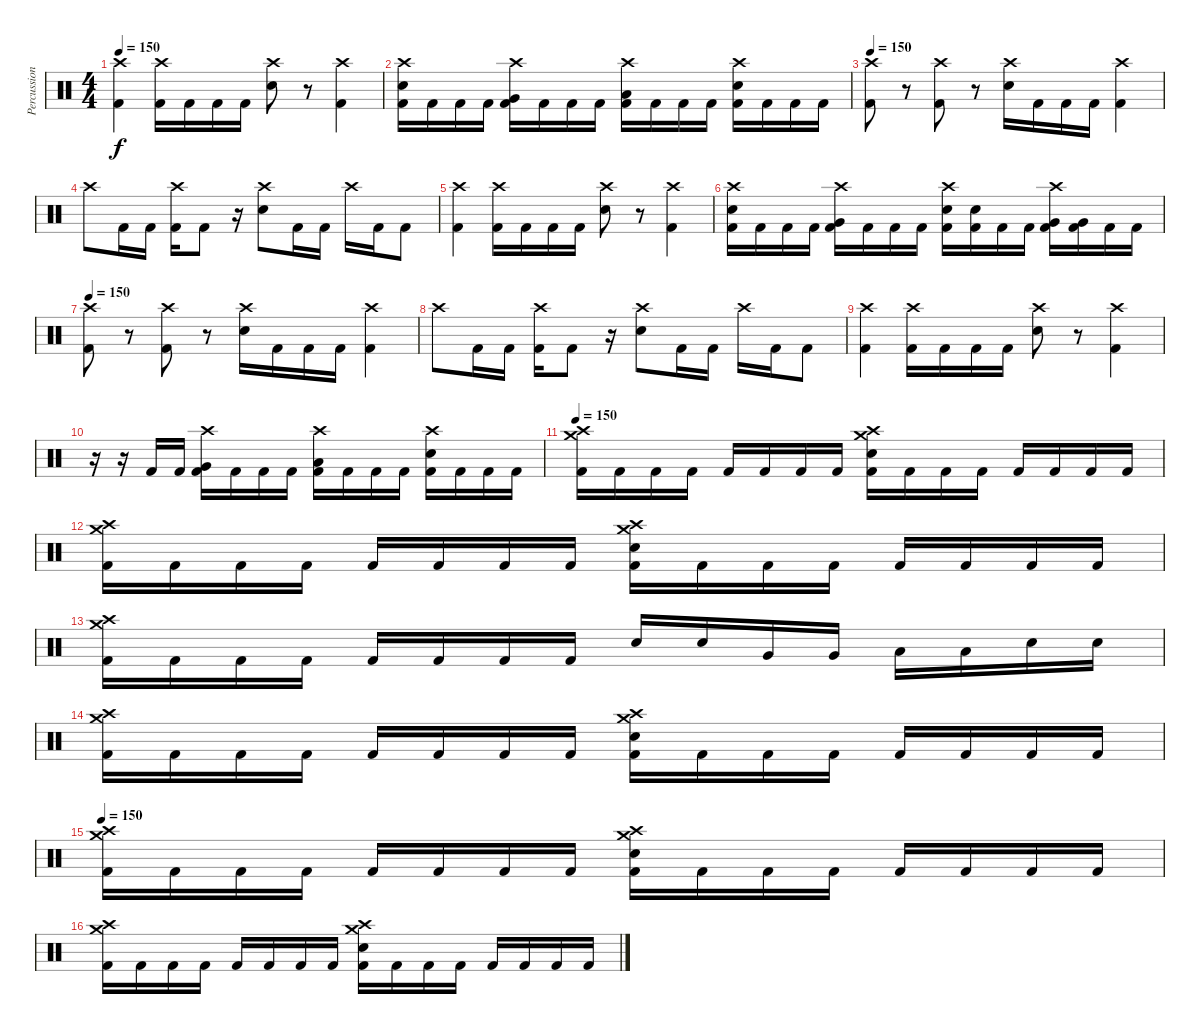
\track ("Percussions" "Percussion") {instrument percussion}
\staff {score}
\articulation defaults
\ts (4 4)
\tempo 150
\clef neutral
\ks c
("Crash high (hit)" "Kick (hit) 2").4{dy f} ("Crash high (hit)" "Kick (hit) 2").16 "Kick (hit) 2".16 "Kick (hit) 2".16 "Kick (hit) 2".16 ("Crash high (hit)" "Electric Snare (hit)").8 r.8 ("Crash high (hit)" "Kick (hit) 2").4 |
("Crash high (hit)" "Electric Snare (hit)" "Kick (hit) 2").16 "Kick (hit) 2".16 "Kick (hit) 2".16 "Kick (hit) 2".16 ("Crash high (hit)" "Very Low Tom (hit)" "Kick (hit) 2").16 "Kick (hit) 2".16 "Kick (hit) 2".16 "Kick (hit) 2".16 ("Crash high (hit)" "Low Floor Tom (hit)" "Kick (hit) 2").16 "Kick (hit) 2".16 "Kick (hit) 2".16 "Kick (hit) 2".16 ("Crash high (hit)" "Electric Snare (hit)" "Kick (hit) 2").16 "Kick (hit) 2".16 "Kick (hit) 2".16 "Kick (hit) 2".16 |
\tempo 150
("Crash high (hit)" "Kick (hit) 2").8 r.8 ("Crash high (hit)" "Kick (hit) 2").8 r.8 ("Crash high (hit)" "Electric Snare (hit)").16 "Kick (hit) 2".16 "Kick (hit) 2".16 "Kick (hit) 2".16 ("Crash high (hit)" "Kick (hit) 2").4 |
"Crash high (hit)".8 "Kick (hit) 2".16 "Kick (hit) 2".16 ("Crash high (hit)" "Kick (hit) 2").16 "Kick (hit) 2".8 r.16 ("Crash high (hit)" "Electric Snare (hit)").8 "Kick (hit) 2".16 "Kick (hit) 2".16 "Crash high (hit)".16 "Kick (hit) 2".16 "Kick (hit) 2".8 |
("Crash high (hit)" "Kick (hit) 2").4 ("Crash high (hit)" "Kick (hit) 2").16 "Kick (hit) 2".16 "Kick (hit) 2".16 "Kick (hit) 2".16 ("Crash high (hit)" "Electric Snare (hit)").8 r.8 ("Crash high (hit)" "Kick (hit) 2").4 |
("Crash high (hit)" "Electric Snare (hit)" "Kick (hit) 2").16 "Kick (hit) 2".16 "Kick (hit) 2".16 "Kick (hit) 2".16 ("Crash high (hit)" "Very Low Tom (hit)" "Kick (hit) 2").16 "Kick (hit) 2".16 "Kick (hit) 2".16 "Kick (hit) 2".16 ("Crash high (hit)" "Electric Snare (hit)" "Kick (hit) 2").16 ("Electric Snare (hit)" "Kick (hit) 2").16 "Kick (hit) 2".16 "Kick (hit) 2".16 ("Crash high (hit)" "Very Low Tom (hit)" "Kick (hit) 2").16 ("Very Low Tom (hit)" "Kick (hit) 2").16 "Kick (hit) 2".16 "Kick (hit) 2".16 |
\tempo 150
("Crash high (hit)" "Kick (hit) 2").8 r.8 ("Crash high (hit)" "Kick (hit) 2").8 r.8 ("Crash high (hit)" "Electric Snare (hit)").16 "Kick (hit) 2".16 "Kick (hit) 2".16 "Kick (hit) 2".16 ("Crash high (hit)" "Kick (hit) 2").4 |
"Crash high (hit)".8 "Kick (hit) 2".16 "Kick (hit) 2".16 ("Crash high (hit)" "Kick (hit) 2").16 "Kick (hit) 2".8 r.16 ("Crash high (hit)" "Electric Snare (hit)").8 "Kick (hit) 2".16 "Kick (hit) 2".16 "Crash high (hit)".16 "Kick (hit) 2".16 "Kick (hit) 2".8 |
("Crash high (hit)" "Kick (hit) 2").4 ("Crash high (hit)" "Kick (hit) 2").16 "Kick (hit) 2".16 "Kick (hit) 2".16 "Kick (hit) 2".16 ("Crash high (hit)" "Electric Snare (hit)").8 r.8 ("Crash high (hit)" "Kick (hit) 2").4 |
r.16 r.16 "Kick (hit) 2".16 "Kick (hit) 2".16 ("Crash high (hit)" "Very Low Tom (hit)" "Kick (hit) 2").16 "Kick (hit) 2".16 "Kick (hit) 2".16 "Kick (hit) 2".16 ("Crash high (hit)" "Low Floor Tom (hit)" "Kick (hit) 2").16 "Kick (hit) 2".16 "Kick (hit) 2".16 "Kick (hit) 2".16 ("Crash high (hit)" "Electric Snare (hit)" "Kick (hit) 2").16 "Kick (hit) 2".16 "Kick (hit) 2".16 "Kick (hit) 2".16 |
\tempo 150
("Crash high (hit)" "Crash medium (hit)" "Kick (hit) 2").16 "Kick (hit) 2".16 "Kick (hit) 2".16 "Kick (hit) 2".16 "Kick (hit) 2".16 "Kick (hit) 2".16 "Kick (hit) 2".16 "Kick (hit) 2".16 ("Crash high (hit)" "Crash medium (hit)" "Electric Snare (hit)" "Kick (hit) 2").16 "Kick (hit) 2".16 "Kick (hit) 2".16 "Kick (hit) 2".16 "Kick (hit) 2".16 "Kick (hit) 2".16 "Kick (hit) 2".16 "Kick (hit) 2".16 |
("Crash high (hit)" "Crash medium (hit)" "Kick (hit) 2").16 "Kick (hit) 2".16 "Kick (hit) 2".16 "Kick (hit) 2".16 "Kick (hit) 2".16 "Kick (hit) 2".16 "Kick (hit) 2".16 "Kick (hit) 2".16 ("Crash high (hit)" "Crash medium (hit)" "Electric Snare (hit)" "Kick (hit) 2").16 "Kick (hit) 2".16 "Kick (hit) 2".16 "Kick (hit) 2".16 "Kick (hit) 2".16 "Kick (hit) 2".16 "Kick (hit) 2".16 "Kick (hit) 2".16 |
("Crash high (hit)" "Crash medium (hit)" "Kick (hit) 2").16 "Kick (hit) 2".16 "Kick (hit) 2".16 "Kick (hit) 2".16 "Kick (hit) 2".16 "Kick (hit) 2".16 "Kick (hit) 2".16 "Kick (hit) 2".16 "Electric Snare (hit)".16 "Electric Snare (hit)".16 "Very Low Tom (hit)".16 "Very Low Tom (hit)".16 "Low Floor Tom (hit)".16 "Low Floor Tom (hit)".16 "Electric Snare (hit)".16 "Electric Snare (hit)".16 |
("Crash high (hit)" "Crash medium (hit)" "Kick (hit) 2").16 "Kick (hit) 2".16 "Kick (hit) 2".16 "Kick (hit) 2".16 "Kick (hit) 2".16 "Kick (hit) 2".16 "Kick (hit) 2".16 "Kick (hit) 2".16 ("Crash high (hit)" "Crash medium (hit)" "Electric Snare (hit)" "Kick (hit) 2").16 "Kick (hit) 2".16 "Kick (hit) 2".16 "Kick (hit) 2".16 "Kick (hit) 2".16 "Kick (hit) 2".16 "Kick (hit) 2".16 "Kick (hit) 2".16 |
\tempo 150
("Crash high (hit)" "Crash medium (hit)" "Kick (hit) 2").16 "Kick (hit) 2".16 "Kick (hit) 2".16 "Kick (hit) 2".16 "Kick (hit) 2".16 "Kick (hit) 2".16 "Kick (hit) 2".16 "Kick (hit) 2".16 ("Crash high (hit)" "Crash medium (hit)" "Electric Snare (hit)" "Kick (hit) 2").16 "Kick (hit) 2".16 "Kick (hit) 2".16 "Kick (hit) 2".16 "Kick (hit) 2".16 "Kick (hit) 2".16 "Kick (hit) 2".16 "Kick (hit) 2".16 |
("Crash high (hit)" "Crash medium (hit)" "Kick (hit) 2").16 "Kick (hit) 2".16 "Kick (hit) 2".16 "Kick (hit) 2".16 "Kick (hit) 2".16 "Kick (hit) 2".16 "Kick (hit) 2".16 "Kick (hit) 2".16 ("Crash high (hit)" "Crash medium (hit)" "Electric Snare (hit)" "Kick (hit) 2").16 "Kick (hit) 2".16 "Kick (hit) 2".16 "Kick (hit) 2".16 "Kick (hit) 2".16 "Kick (hit) 2".16 "Kick (hit) 2".16 "Kick (hit) 2".16
